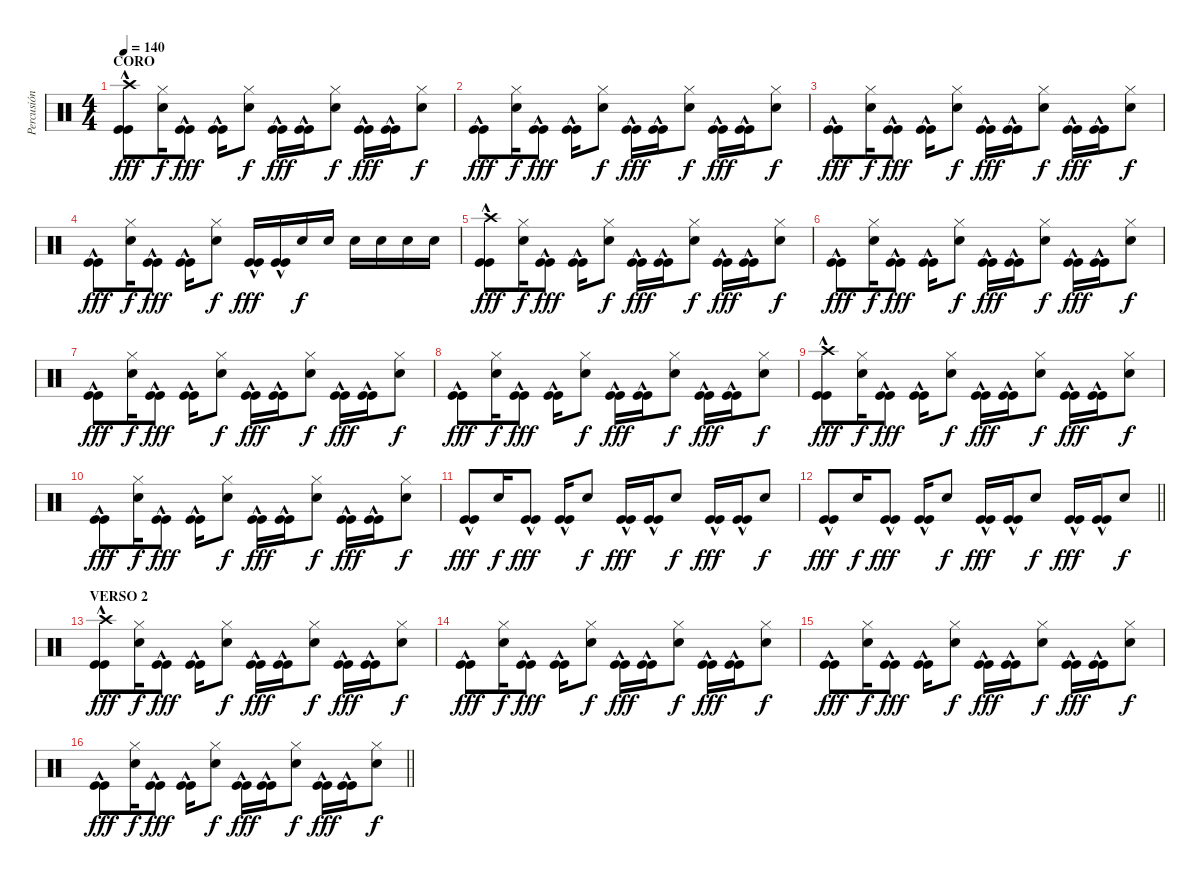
\track ("Percusión" "Percusión") {instrument percussion}
\staff {score}
\articulation defaults
\ts (4 4)
\section ("" "CORO")
\tempo 140
\clef neutral
\ks c
("Crash high (hit)" "Kick (hit)"{hac} "Kick (hit)").8{dy fff} ("Hi-Hat (closed)" "Snare (hit) 2").16{dy f} ("Kick (hit)"{hac} "Kick (hit)").8{dy fff} ("Kick (hit)" "Kick (hit)"{hac}).16 ("Hi-Hat (closed)" "Snare (hit) 2").8{dy f} ("Kick (hit)"{hac} "Kick (hit)").16{dy fff} ("Kick (hit)"{hac} "Kick (hit)").16 ("Hi-Hat (closed)" "Snare (hit) 2").8{dy f} ("Kick (hit)"{hac} "Kick (hit)").16{dy fff} ("Kick (hit)"{hac} "Kick (hit)").16 ("Hi-Hat (closed)" "Snare (hit) 2").8{dy f} |
("Kick (hit)"{hac} "Kick (hit)").8{dy fff} ("Hi-Hat (closed)" "Snare (hit) 2").16{dy f} ("Kick (hit)"{hac} "Kick (hit)").8{dy fff} ("Kick (hit)" "Kick (hit)"{hac}).16 ("Hi-Hat (closed)" "Snare (hit) 2").8{dy f} ("Kick (hit)"{hac} "Kick (hit)").16{dy fff} ("Kick (hit)"{hac} "Kick (hit)").16 ("Hi-Hat (closed)" "Snare (hit) 2").8{dy f} ("Kick (hit)"{hac} "Kick (hit)").16{dy fff} ("Kick (hit)"{hac} "Kick (hit)").16 ("Hi-Hat (closed)" "Snare (hit) 2").8{dy f} |
("Kick (hit)"{hac} "Kick (hit)").8{dy fff} ("Hi-Hat (closed)" "Snare (hit) 2").16{dy f} ("Kick (hit)"{hac} "Kick (hit)").8{dy fff} ("Kick (hit)" "Kick (hit)"{hac}).16 ("Hi-Hat (closed)" "Snare (hit) 2").8{dy f} ("Kick (hit)"{hac} "Kick (hit)").16{dy fff} ("Kick (hit)"{hac} "Kick (hit)").16 ("Hi-Hat (closed)" "Snare (hit) 2").8{dy f} ("Kick (hit)"{hac} "Kick (hit)").16{dy fff} ("Kick (hit)"{hac} "Kick (hit)").16 ("Hi-Hat (closed)" "Snare (hit) 2").8{dy f} |
("Kick (hit)"{hac} "Kick (hit)").8{dy fff} ("Hi-Hat (closed)" "Snare (hit) 2").16{dy f} ("Kick (hit)"{hac} "Kick (hit)").8{dy fff} ("Kick (hit)" "Kick (hit)"{hac}).16 ("Hi-Hat (closed)" "Snare (hit) 2").8{dy f} ("Kick (hit)"{hac} "Kick (hit)").16{dy fff} ("Kick (hit)"{hac} "Kick (hit)").16 "Snare (hit) 2".16{dy f} "Snare (hit) 2".16 "Snare (hit) 2".16 "Snare (hit) 2".16 "Snare (hit) 2".16 "Snare (hit) 2".16 |
("Crash high (hit)" "Kick (hit)"{hac} "Kick (hit)").8{dy fff} ("Hi-Hat (closed)" "Snare (hit) 2").16{dy f} ("Kick (hit)"{hac} "Kick (hit)").8{dy fff} ("Kick (hit)" "Kick (hit)"{hac}).16 ("Hi-Hat (closed)" "Snare (hit) 2").8{dy f} ("Kick (hit)"{hac} "Kick (hit)").16{dy fff} ("Kick (hit)"{hac} "Kick (hit)").16 ("Hi-Hat (closed)" "Snare (hit) 2").8{dy f} ("Kick (hit)"{hac} "Kick (hit)").16{dy fff} ("Kick (hit)"{hac} "Kick (hit)").16 ("Hi-Hat (closed)" "Snare (hit) 2").8{dy f} |
("Kick (hit)"{hac} "Kick (hit)").8{dy fff} ("Hi-Hat (closed)" "Snare (hit) 2").16{dy f} ("Kick (hit)"{hac} "Kick (hit)").8{dy fff} ("Kick (hit)" "Kick (hit)"{hac}).16 ("Hi-Hat (closed)" "Snare (hit) 2").8{dy f} ("Kick (hit)"{hac} "Kick (hit)").16{dy fff} ("Kick (hit)"{hac} "Kick (hit)").16 ("Hi-Hat (closed)" "Snare (hit) 2").8{dy f} ("Kick (hit)"{hac} "Kick (hit)").16{dy fff} ("Kick (hit)"{hac} "Kick (hit)").16 ("Hi-Hat (closed)" "Snare (hit) 2").8{dy f} |
("Kick (hit)"{hac} "Kick (hit)").8{dy fff} ("Hi-Hat (closed)" "Snare (hit) 2").16{dy f} ("Kick (hit)"{hac} "Kick (hit)").8{dy fff} ("Kick (hit)" "Kick (hit)"{hac}).16 ("Hi-Hat (closed)" "Snare (hit) 2").8{dy f} ("Kick (hit)"{hac} "Kick (hit)").16{dy fff} ("Kick (hit)"{hac} "Kick (hit)").16 ("Hi-Hat (closed)" "Snare (hit) 2").8{dy f} ("Kick (hit)"{hac} "Kick (hit)").16{dy fff} ("Kick (hit)"{hac} "Kick (hit)").16 ("Hi-Hat (closed)" "Snare (hit) 2").8{dy f} |
("Kick (hit)"{hac} "Kick (hit)").8{dy fff} ("Hi-Hat (closed)" "Snare (hit) 2").16{dy f} ("Kick (hit)"{hac} "Kick (hit)").8{dy fff} ("Kick (hit)" "Kick (hit)"{hac}).16 ("Hi-Hat (closed)" "Snare (hit) 2").8{dy f} ("Kick (hit)"{hac} "Kick (hit)").16{dy fff} ("Kick (hit)"{hac} "Kick (hit)").16 ("Hi-Hat (closed)" "Snare (hit) 2").8{dy f} ("Kick (hit)"{hac} "Kick (hit)").16{dy fff} ("Kick (hit)"{hac} "Kick (hit)").16 ("Hi-Hat (closed)" "Snare (hit) 2").8{dy f} |
("Crash high (hit)" "Kick (hit)"{hac} "Kick (hit)").8{dy fff} ("Hi-Hat (closed)" "Snare (hit) 2").16{dy f} ("Kick (hit)"{hac} "Kick (hit)").8{dy fff} ("Kick (hit)" "Kick (hit)"{hac}).16 ("Hi-Hat (closed)" "Snare (hit) 2").8{dy f} ("Kick (hit)"{hac} "Kick (hit)").16{dy fff} ("Kick (hit)"{hac} "Kick (hit)").16 ("Hi-Hat (closed)" "Snare (hit) 2").8{dy f} ("Kick (hit)"{hac} "Kick (hit)").16{dy fff} ("Kick (hit)"{hac} "Kick (hit)").16 ("Hi-Hat (closed)" "Snare (hit) 2").8{dy f} |
("Kick (hit)"{hac} "Kick (hit)").8{dy fff} ("Hi-Hat (closed)" "Snare (hit) 2").16{dy f} ("Kick (hit)"{hac} "Kick (hit)").8{dy fff} ("Kick (hit)" "Kick (hit)"{hac}).16 ("Hi-Hat (closed)" "Snare (hit) 2").8{dy f} ("Kick (hit)"{hac} "Kick (hit)").16{dy fff} ("Kick (hit)"{hac} "Kick (hit)").16 ("Hi-Hat (closed)" "Snare (hit) 2").8{dy f} ("Kick (hit)"{hac} "Kick (hit)").16{dy fff} ("Kick (hit)"{hac} "Kick (hit)").16 ("Hi-Hat (closed)" "Snare (hit) 2").8{dy f} |
("Kick (hit)"{hac} "Kick (hit)").8{dy fff} "Snare (hit) 2".16{dy f} ("Kick (hit)"{hac} "Kick (hit)").8{dy fff} ("Kick (hit)" "Kick (hit)"{hac}).16 "Snare (hit) 2".8{dy f} ("Kick (hit)"{hac} "Kick (hit)").16{dy fff} ("Kick (hit)"{hac} "Kick (hit)").16 "Snare (hit) 2".8{dy f} ("Kick (hit)"{hac} "Kick (hit)").16{dy fff} ("Kick (hit)"{hac} "Kick (hit)").16 "Snare (hit) 2".8{dy f} |
\barLineRight lightlight
("Kick (hit)"{hac} "Kick (hit)").8{dy fff} "Snare (hit) 2".16{dy f} ("Kick (hit)"{hac} "Kick (hit)").8{dy fff} ("Kick (hit)" "Kick (hit)"{hac}).16 "Snare (hit) 2".8{dy f} ("Kick (hit)"{hac} "Kick (hit)").16{dy fff} ("Kick (hit)"{hac} "Kick (hit)").16 "Snare (hit) 2".8{dy f} ("Kick (hit)"{hac} "Kick (hit)").16{dy fff} ("Kick (hit)"{hac} "Kick (hit)").16 "Snare (hit) 2".8{dy f} |
\section ("" "VERSO 2")
("Crash high (hit)" "Kick (hit)"{hac} "Kick (hit)").8{dy fff} ("Hi-Hat (closed)" "Snare (hit) 2").16{dy f} ("Kick (hit)"{hac} "Kick (hit)").8{dy fff} ("Kick (hit)" "Kick (hit)"{hac}).16 ("Hi-Hat (closed)" "Snare (hit) 2").8{dy f} ("Kick (hit)"{hac} "Kick (hit)").16{dy fff} ("Kick (hit)"{hac} "Kick (hit)").16 ("Hi-Hat (closed)" "Snare (hit) 2").8{dy f} ("Kick (hit)"{hac} "Kick (hit)").16{dy fff} ("Kick (hit)"{hac} "Kick (hit)").16 ("Hi-Hat (closed)" "Snare (hit) 2").8{dy f} |
("Kick (hit)"{hac} "Kick (hit)").8{dy fff} ("Hi-Hat (closed)" "Snare (hit) 2").16{dy f} ("Kick (hit)"{hac} "Kick (hit)").8{dy fff} ("Kick (hit)" "Kick (hit)"{hac}).16 ("Hi-Hat (closed)" "Snare (hit) 2").8{dy f} ("Kick (hit)"{hac} "Kick (hit)").16{dy fff} ("Kick (hit)"{hac} "Kick (hit)").16 ("Hi-Hat (closed)" "Snare (hit) 2").8{dy f} ("Kick (hit)"{hac} "Kick (hit)").16{dy fff} ("Kick (hit)"{hac} "Kick (hit)").16 ("Hi-Hat (closed)" "Snare (hit) 2").8{dy f} |
("Kick (hit)"{hac} "Kick (hit)").8{dy fff} ("Hi-Hat (closed)" "Snare (hit) 2").16{dy f} ("Kick (hit)"{hac} "Kick (hit)").8{dy fff} ("Kick (hit)" "Kick (hit)"{hac}).16 ("Hi-Hat (closed)" "Snare (hit) 2").8{dy f} ("Kick (hit)"{hac} "Kick (hit)").16{dy fff} ("Kick (hit)"{hac} "Kick (hit)").16 ("Hi-Hat (closed)" "Snare (hit) 2").8{dy f} ("Kick (hit)"{hac} "Kick (hit)").16{dy fff} ("Kick (hit)"{hac} "Kick (hit)").16 ("Hi-Hat (closed)" "Snare (hit) 2").8{dy f} |
\barLineRight lightlight
("Kick (hit)"{hac} "Kick (hit)").8{dy fff} ("Hi-Hat (closed)" "Snare (hit) 2").16{dy f} ("Kick (hit)"{hac} "Kick (hit)").8{dy fff} ("Kick (hit)" "Kick (hit)"{hac}).16 ("Hi-Hat (closed)" "Snare (hit) 2").8{dy f} ("Kick (hit)"{hac} "Kick (hit)").16{dy fff} ("Kick (hit)"{hac} "Kick (hit)").16 ("Hi-Hat (closed)" "Snare (hit) 2").8{dy f} ("Kick (hit)"{hac} "Kick (hit)").16{dy fff} ("Kick (hit)"{hac} "Kick (hit)").16 ("Hi-Hat (closed)" "Snare (hit) 2").8{dy f}
